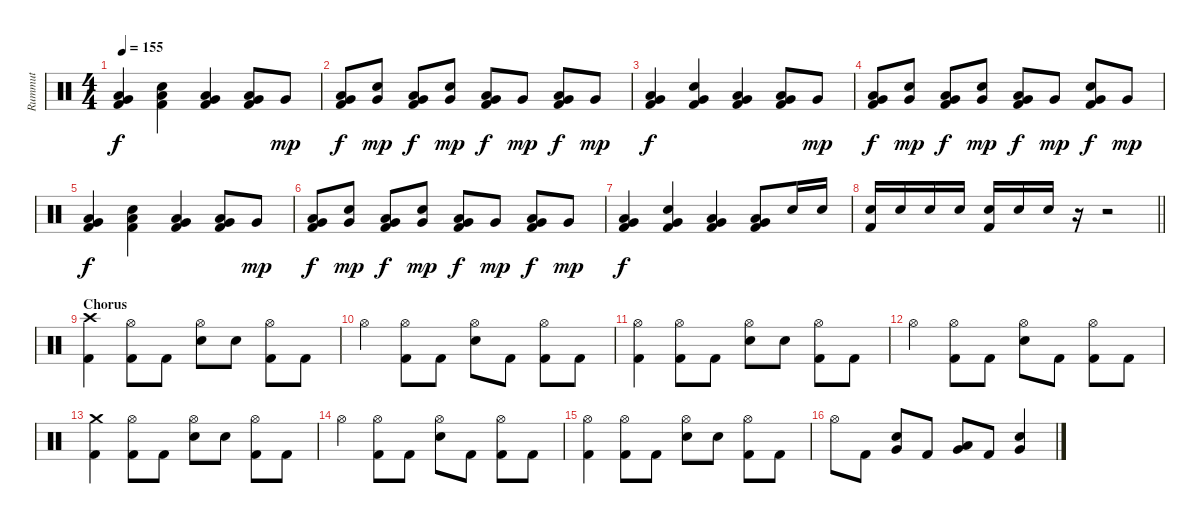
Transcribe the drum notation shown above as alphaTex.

\track ("Rummut" "Rummut") {instrument percussion}
\staff {score}
\articulation defaults
\ts (4 4)
\tempo 155
\clef neutral
\ks c
("Low Tom (hit)" "Very Low Tom (hit)" "Kick (hit) 2").4{dy f} ("Low Tom (hit)" "Electric Snare (hit)" "Kick (hit) 2").4 ("Low Tom (hit)" "Very Low Tom (hit)" "Kick (hit) 2").4 ("Low Tom (hit)" "Very Low Tom (hit)" "Kick (hit) 2").8 "Very Low Tom (hit)".8{dy mp} |
("Low Tom (hit)" "Very Low Tom (hit)" "Kick (hit) 2").8{dy f} ("Very Low Tom (hit)" "Electric Snare (hit)").8{dy mp} ("Low Tom (hit)" "Very Low Tom (hit)" "Kick (hit) 2").8{dy f} ("Very Low Tom (hit)" "Electric Snare (hit)").8{dy mp} ("Low Tom (hit)" "Very Low Tom (hit)" "Kick (hit) 2").8{dy f} "Very Low Tom (hit)".8{dy mp} ("Low Tom (hit)" "Very Low Tom (hit)" "Kick (hit) 2").8{dy f} "Very Low Tom (hit)".8{dy mp} |
("Low Tom (hit)" "Very Low Tom (hit)" "Kick (hit) 2").4{dy f} ("Very Low Tom (hit)" "Electric Snare (hit)" "Kick (hit) 2").4 ("Low Tom (hit)" "Very Low Tom (hit)" "Kick (hit) 2").4 ("Low Tom (hit)" "Very Low Tom (hit)" "Kick (hit) 2").8 "Very Low Tom (hit)".8{dy mp} |
("Low Tom (hit)" "Very Low Tom (hit)" "Kick (hit) 2").8{dy f} ("Very Low Tom (hit)" "Electric Snare (hit)").8{dy mp} ("Low Tom (hit)" "Very Low Tom (hit)" "Kick (hit) 2").8{dy f} ("Very Low Tom (hit)" "Electric Snare (hit)").8{dy mp} ("Low Tom (hit)" "Very Low Tom (hit)" "Kick (hit) 2").8{dy f} "Very Low Tom (hit)".8{dy mp} ("Very Low Tom (hit)" "Electric Snare (hit)" "Kick (hit) 2").8{dy f} "Very Low Tom (hit)".8{dy mp} |
("Low Tom (hit)" "Very Low Tom (hit)" "Kick (hit) 2").4{dy f} ("Low Tom (hit)" "Electric Snare (hit)" "Kick (hit) 2").4 ("Low Tom (hit)" "Very Low Tom (hit)" "Kick (hit) 2").4 ("Low Tom (hit)" "Very Low Tom (hit)" "Kick (hit) 2").8 "Very Low Tom (hit)".8{dy mp} |
("Low Tom (hit)" "Very Low Tom (hit)" "Kick (hit) 2").8{dy f} ("Very Low Tom (hit)" "Electric Snare (hit)").8{dy mp} ("Low Tom (hit)" "Very Low Tom (hit)" "Kick (hit) 2").8{dy f} ("Very Low Tom (hit)" "Electric Snare (hit)").8{dy mp} ("Low Tom (hit)" "Very Low Tom (hit)" "Kick (hit) 2").8{dy f} "Very Low Tom (hit)".8{dy mp} ("Low Tom (hit)" "Very Low Tom (hit)" "Kick (hit) 2").8{dy f} "Very Low Tom (hit)".8{dy mp} |
("Low Tom (hit)" "Very Low Tom (hit)" "Kick (hit) 2").4{dy f} ("Very Low Tom (hit)" "Electric Snare (hit)" "Kick (hit) 2").4 ("Low Tom (hit)" "Very Low Tom (hit)" "Kick (hit) 2").4 ("Low Tom (hit)" "Very Low Tom (hit)" "Kick (hit) 2").8 "Electric Snare (hit)".16 "Electric Snare (hit)".16 |
\barLineRight lightlight
("Electric Snare (hit)" "Kick (hit) 2").16 "Electric Snare (hit)".16 "Electric Snare (hit)".16 "Electric Snare (hit)".16 ("Electric Snare (hit)" "Kick (hit) 2").16 "Electric Snare (hit)".16 "Electric Snare (hit)".16 r.16 r.2 |
\section ("" "Chorus")
("Crash high (hit)" "Kick (hit) 2").4 ("Hi-Hat (open)" "Kick (hit) 2").8 "Kick (hit) 2".8 ("Hi-Hat (open)" "Electric Snare (hit)").8 "Electric Snare (hit)".8 ("Hi-Hat (open)" "Kick (hit) 2").8 "Kick (hit) 2".8 |
"Hi-Hat (open)".4 ("Hi-Hat (open)" "Kick (hit) 2").8 "Kick (hit) 2".8 ("Hi-Hat (open)" "Electric Snare (hit)").8 "Kick (hit) 2".8 ("Hi-Hat (open)" "Kick (hit) 2").8 "Kick (hit) 2".8 |
("Hi-Hat (open)" "Kick (hit) 2").4 ("Hi-Hat (open)" "Kick (hit) 2").8 "Kick (hit) 2".8 ("Hi-Hat (open)" "Electric Snare (hit)").8 "Electric Snare (hit)".8 ("Hi-Hat (open)" "Kick (hit) 2").8 "Kick (hit) 2".8 |
"Hi-Hat (open)".4 ("Hi-Hat (open)" "Kick (hit) 2").8 "Kick (hit) 2".8 ("Hi-Hat (open)" "Electric Snare (hit)").8 "Kick (hit) 2".8 ("Hi-Hat (open)" "Kick (hit) 2").8 "Kick (hit) 2".8 |
("Crash medium (hit)" "Kick (hit) 2").4 ("Hi-Hat (open)" "Kick (hit) 2").8 "Kick (hit) 2".8 ("Hi-Hat (open)" "Electric Snare (hit)").8 "Electric Snare (hit)".8 ("Hi-Hat (open)" "Kick (hit) 2").8 "Kick (hit) 2".8 |
"Hi-Hat (open)".4 ("Hi-Hat (open)" "Kick (hit) 2").8 "Kick (hit) 2".8 ("Hi-Hat (open)" "Electric Snare (hit)").8 "Kick (hit) 2".8 ("Hi-Hat (open)" "Kick (hit) 2").8 "Kick (hit) 2".8 |
("Hi-Hat (open)" "Kick (hit) 2").4 ("Hi-Hat (open)" "Kick (hit) 2").8 "Kick (hit) 2".8 ("Hi-Hat (open)" "Electric Snare (hit)").8 "Electric Snare (hit)".8 ("Hi-Hat (open)" "Kick (hit) 2").8 "Kick (hit) 2".8 |
"Hi-Hat (open)".8 "Kick (hit) 2".8 ("Very Low Tom (hit)" "Electric Snare (hit)").8 "Kick (hit) 2".8 ("Low Tom (hit)" "Very Low Tom (hit)").8 "Kick (hit) 2".8 ("Very Low Tom (hit)" "Electric Snare (hit)").4
